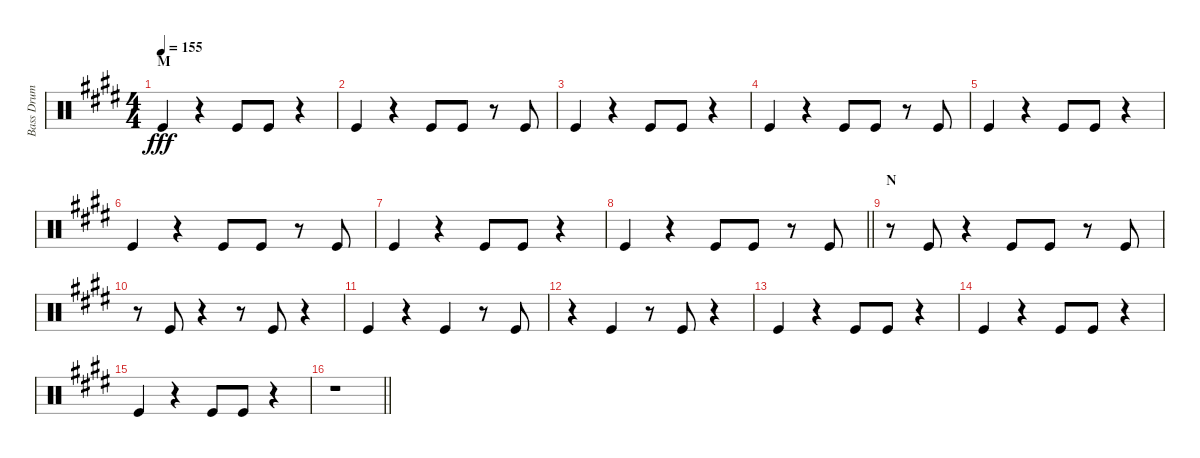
\track ("Bass Drum" "Bass Drum") {instrument percussion}
\staff {score}
\articulation defaults
\ts (4 4)
\section ("" "M")
\tempo 155
\clef neutral
\ks e "Kick (hit)".4{dy fff}
r.4 "Kick (hit)".8 "Kick (hit)".8 r.4 |
"Kick (hit)".4 r.4 "Kick (hit)".8 "Kick (hit)".8 r.8 "Kick (hit)".8 |
"Kick (hit)".4 r.4 "Kick (hit)".8 "Kick (hit)".8 r.4 |
"Kick (hit)".4 r.4 "Kick (hit)".8 "Kick (hit)".8 r.8 "Kick (hit)".8 |
"Kick (hit)".4 r.4 "Kick (hit)".8 "Kick (hit)".8 r.4 |
"Kick (hit)".4 r.4 "Kick (hit)".8 "Kick (hit)".8 r.8 "Kick (hit)".8 |
"Kick (hit)".4 r.4 "Kick (hit)".8 "Kick (hit)".8 r.4 |
\barLineRight lightlight "Kick (hit)".4
r.4 "Kick (hit)".8 "Kick (hit)".8 r.8 "Kick (hit)".8 |
\section ("" "N")
r.8 "Kick (hit)".8 r.4 "Kick (hit)".8 "Kick (hit)".8 r.8 "Kick (hit)".8 |
r.8 "Kick (hit)".8 r.4 r.8 "Kick (hit)".8 r.4 |
"Kick (hit)".4 r.4 "Kick (hit)".4 r.8 "Kick (hit)".8 |
r.4 "Kick (hit)".4 r.8 "Kick (hit)".8 r.4 |
"Kick (hit)".4 r.4 "Kick (hit)".8 "Kick (hit)".8 r.4 |
"Kick (hit)".4 r.4 "Kick (hit)".8 "Kick (hit)".8 r.4 |
"Kick (hit)".4 r.4 "Kick (hit)".8 "Kick (hit)".8 r.4 |
\barLineRight lightlight
r.1
